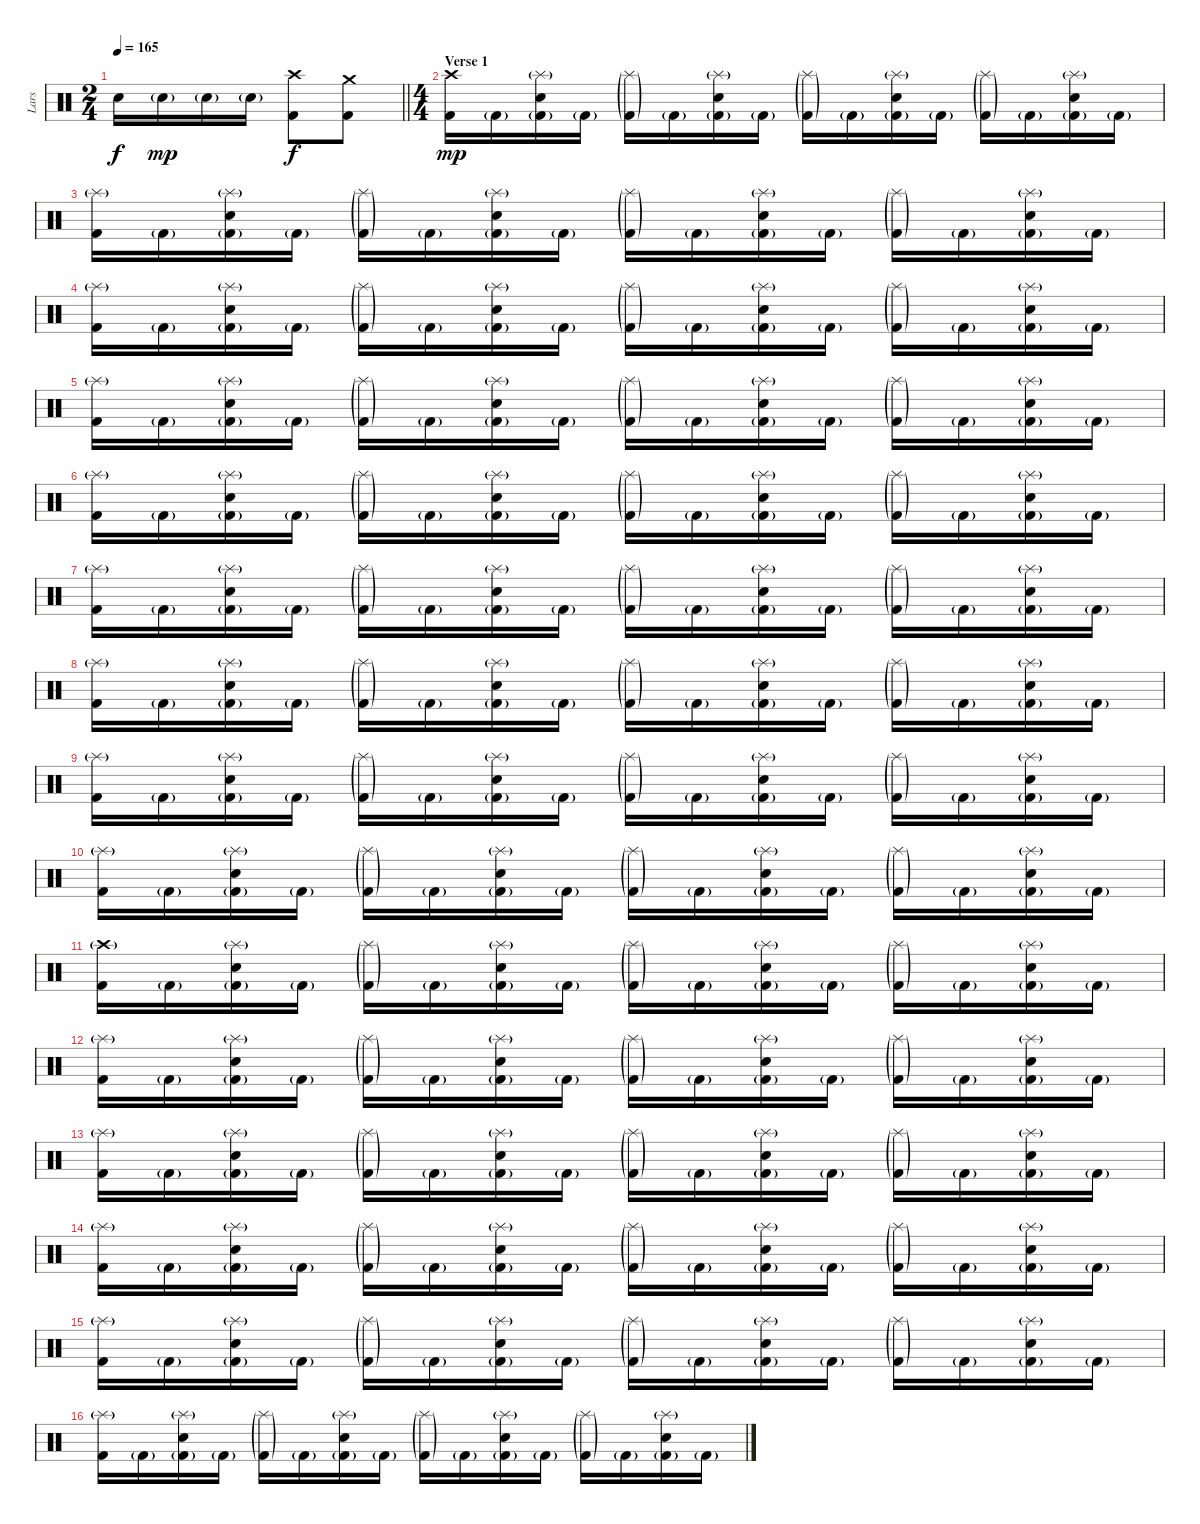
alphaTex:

\track ("Lars" "Lars") {instrument percussion}
\staff {score}
\articulation defaults
\ts (2 4)
\tempo 165
\clef neutral
\barLineRight lightlight
\ks c "Snare (hit) 2".16{dy f} "Snare (hit) 2"{g}.16{dy mp} "Snare (hit) 2"{g}.16 "Snare (hit) 2"{g}.16
("Crash high (hit)" "Kick (hit) 2").8{dy f} ("Crash medium (hit)" "Kick (hit) 2").8 |
\ts (4 4)
\section ("" "Verse 1")
("Crash high (hit)" "Kick (hit) 2").16{dy mp} "Kick (hit) 2"{g}.16 ("Splash (hit)"{g} "Snare (hit) 2" "Kick (hit) 2"{g}).16 "Kick (hit) 2"{g}.16 ("Splash (hit)"{g} "Kick (hit) 2"{g}).16 "Kick (hit) 2"{g}.16 ("Splash (hit)"{g} "Snare (hit) 2" "Kick (hit) 2"{g}).16 "Kick (hit) 2"{g}.16 ("Splash (hit)"{g} "Kick (hit) 2"{g}).16 "Kick (hit) 2"{g}.16 ("Splash (hit)"{g} "Snare (hit) 2" "Kick (hit) 2"{g}).16 "Kick (hit) 2"{g}.16 ("Splash (hit)"{g} "Kick (hit) 2"{g}).16 "Kick (hit) 2"{g}.16 ("Splash (hit)"{g} "Snare (hit) 2" "Kick (hit) 2"{g}).16 "Kick (hit) 2"{g}.16 |
("Splash (hit)"{g} "Kick (hit) 2").16 "Kick (hit) 2"{g}.16 ("Splash (hit)"{g} "Snare (hit) 2" "Kick (hit) 2"{g}).16 "Kick (hit) 2"{g}.16 ("Splash (hit)"{g} "Kick (hit) 2"{g}).16 "Kick (hit) 2"{g}.16 ("Splash (hit)"{g} "Snare (hit) 2" "Kick (hit) 2"{g}).16 "Kick (hit) 2"{g}.16 ("Splash (hit)"{g} "Kick (hit) 2"{g}).16 "Kick (hit) 2"{g}.16 ("Splash (hit)"{g} "Snare (hit) 2" "Kick (hit) 2"{g}).16 "Kick (hit) 2"{g}.16 ("Splash (hit)"{g} "Kick (hit) 2"{g}).16 "Kick (hit) 2"{g}.16 ("Splash (hit)"{g} "Snare (hit) 2" "Kick (hit) 2"{g}).16 "Kick (hit) 2"{g}.16 |
("Splash (hit)"{g} "Kick (hit) 2").16 "Kick (hit) 2"{g}.16 ("Splash (hit)"{g} "Snare (hit) 2" "Kick (hit) 2"{g}).16 "Kick (hit) 2"{g}.16 ("Splash (hit)"{g} "Kick (hit) 2"{g}).16 "Kick (hit) 2"{g}.16 ("Splash (hit)"{g} "Snare (hit) 2" "Kick (hit) 2"{g}).16 "Kick (hit) 2"{g}.16 ("Splash (hit)"{g} "Kick (hit) 2"{g}).16 "Kick (hit) 2"{g}.16 ("Splash (hit)"{g} "Snare (hit) 2" "Kick (hit) 2"{g}).16 "Kick (hit) 2"{g}.16 ("Splash (hit)"{g} "Kick (hit) 2"{g}).16 "Kick (hit) 2"{g}.16 ("Splash (hit)"{g} "Snare (hit) 2" "Kick (hit) 2"{g}).16 "Kick (hit) 2"{g}.16 |
("Splash (hit)"{g} "Kick (hit) 2").16 "Kick (hit) 2"{g}.16 ("Splash (hit)"{g} "Snare (hit) 2" "Kick (hit) 2"{g}).16 "Kick (hit) 2"{g}.16 ("Splash (hit)"{g} "Kick (hit) 2"{g}).16 "Kick (hit) 2"{g}.16 ("Splash (hit)"{g} "Snare (hit) 2" "Kick (hit) 2"{g}).16 "Kick (hit) 2"{g}.16 ("Splash (hit)"{g} "Kick (hit) 2"{g}).16 "Kick (hit) 2"{g}.16 ("Splash (hit)"{g} "Snare (hit) 2" "Kick (hit) 2"{g}).16 "Kick (hit) 2"{g}.16 ("Splash (hit)"{g} "Kick (hit) 2"{g}).16 "Kick (hit) 2"{g}.16 ("Splash (hit)"{g} "Snare (hit) 2" "Kick (hit) 2"{g}).16 "Kick (hit) 2"{g}.16 |
("Splash (hit)"{g} "Kick (hit) 2").16 "Kick (hit) 2"{g}.16 ("Splash (hit)"{g} "Snare (hit) 2" "Kick (hit) 2"{g}).16 "Kick (hit) 2"{g}.16 ("Splash (hit)"{g} "Kick (hit) 2"{g}).16 "Kick (hit) 2"{g}.16 ("Splash (hit)"{g} "Snare (hit) 2" "Kick (hit) 2"{g}).16 "Kick (hit) 2"{g}.16 ("Splash (hit)"{g} "Kick (hit) 2"{g}).16 "Kick (hit) 2"{g}.16 ("Splash (hit)"{g} "Snare (hit) 2" "Kick (hit) 2"{g}).16 "Kick (hit) 2"{g}.16 ("Splash (hit)"{g} "Kick (hit) 2"{g}).16 "Kick (hit) 2"{g}.16 ("Splash (hit)"{g} "Snare (hit) 2" "Kick (hit) 2"{g}).16 "Kick (hit) 2"{g}.16 |
("Splash (hit)"{g} "Kick (hit) 2").16 "Kick (hit) 2"{g}.16 ("Splash (hit)"{g} "Snare (hit) 2" "Kick (hit) 2"{g}).16 "Kick (hit) 2"{g}.16 ("Splash (hit)"{g} "Kick (hit) 2"{g}).16 "Kick (hit) 2"{g}.16 ("Splash (hit)"{g} "Snare (hit) 2" "Kick (hit) 2"{g}).16 "Kick (hit) 2"{g}.16 ("Splash (hit)"{g} "Kick (hit) 2"{g}).16 "Kick (hit) 2"{g}.16 ("Splash (hit)"{g} "Snare (hit) 2" "Kick (hit) 2"{g}).16 "Kick (hit) 2"{g}.16 ("Splash (hit)"{g} "Kick (hit) 2"{g}).16 "Kick (hit) 2"{g}.16 ("Splash (hit)"{g} "Snare (hit) 2" "Kick (hit) 2"{g}).16 "Kick (hit) 2"{g}.16 |
("Splash (hit)"{g} "Kick (hit) 2").16 "Kick (hit) 2"{g}.16 ("Splash (hit)"{g} "Snare (hit) 2" "Kick (hit) 2"{g}).16 "Kick (hit) 2"{g}.16 ("Splash (hit)"{g} "Kick (hit) 2"{g}).16 "Kick (hit) 2"{g}.16 ("Splash (hit)"{g} "Snare (hit) 2" "Kick (hit) 2"{g}).16 "Kick (hit) 2"{g}.16 ("Splash (hit)"{g} "Kick (hit) 2"{g}).16 "Kick (hit) 2"{g}.16 ("Splash (hit)"{g} "Snare (hit) 2" "Kick (hit) 2"{g}).16 "Kick (hit) 2"{g}.16 ("Splash (hit)"{g} "Kick (hit) 2"{g}).16 "Kick (hit) 2"{g}.16 ("Splash (hit)"{g} "Snare (hit) 2" "Kick (hit) 2"{g}).16 "Kick (hit) 2"{g}.16 |
("Splash (hit)"{g} "Kick (hit) 2").16 "Kick (hit) 2"{g}.16 ("Splash (hit)"{g} "Snare (hit) 2" "Kick (hit) 2"{g}).16 "Kick (hit) 2"{g}.16 ("Splash (hit)"{g} "Kick (hit) 2"{g}).16 "Kick (hit) 2"{g}.16 ("Splash (hit)"{g} "Snare (hit) 2" "Kick (hit) 2"{g}).16 "Kick (hit) 2"{g}.16 ("Splash (hit)"{g} "Kick (hit) 2"{g}).16 "Kick (hit) 2"{g}.16 ("Splash (hit)"{g} "Snare (hit) 2" "Kick (hit) 2"{g}).16 "Kick (hit) 2"{g}.16 ("Splash (hit)"{g} "Kick (hit) 2"{g}).16 "Kick (hit) 2"{g}.16 ("Splash (hit)"{g} "Snare (hit) 2" "Kick (hit) 2"{g}).16 "Kick (hit) 2"{g}.16 |
("Splash (hit)"{g} "Kick (hit) 2").16 "Kick (hit) 2"{g}.16 ("Splash (hit)"{g} "Snare (hit) 2" "Kick (hit) 2"{g}).16 "Kick (hit) 2"{g}.16 ("Splash (hit)"{g} "Kick (hit) 2"{g}).16 "Kick (hit) 2"{g}.16 ("Splash (hit)"{g} "Snare (hit) 2" "Kick (hit) 2"{g}).16 "Kick (hit) 2"{g}.16 ("Splash (hit)"{g} "Kick (hit) 2"{g}).16 "Kick (hit) 2"{g}.16 ("Splash (hit)"{g} "Snare (hit) 2" "Kick (hit) 2"{g}).16 "Kick (hit) 2"{g}.16 ("Splash (hit)"{g} "Kick (hit) 2"{g}).16 "Kick (hit) 2"{g}.16 ("Splash (hit)"{g} "Snare (hit) 2" "Kick (hit) 2"{g}).16 "Kick (hit) 2"{g}.16 |
("Crash high (hit)"{g} "Kick (hit) 2").16 "Kick (hit) 2"{g}.16 ("Splash (hit)"{g} "Snare (hit) 2" "Kick (hit) 2"{g}).16 "Kick (hit) 2"{g}.16 ("Splash (hit)"{g} "Kick (hit) 2"{g}).16 "Kick (hit) 2"{g}.16 ("Splash (hit)"{g} "Snare (hit) 2" "Kick (hit) 2"{g}).16 "Kick (hit) 2"{g}.16 ("Splash (hit)"{g} "Kick (hit) 2"{g}).16 "Kick (hit) 2"{g}.16 ("Splash (hit)"{g} "Snare (hit) 2" "Kick (hit) 2"{g}).16 "Kick (hit) 2"{g}.16 ("Splash (hit)"{g} "Kick (hit) 2"{g}).16 "Kick (hit) 2"{g}.16 ("Splash (hit)"{g} "Snare (hit) 2" "Kick (hit) 2"{g}).16 "Kick (hit) 2"{g}.16 |
("Splash (hit)"{g} "Kick (hit) 2").16 "Kick (hit) 2"{g}.16 ("Splash (hit)"{g} "Snare (hit) 2" "Kick (hit) 2"{g}).16 "Kick (hit) 2"{g}.16 ("Splash (hit)"{g} "Kick (hit) 2"{g}).16 "Kick (hit) 2"{g}.16 ("Splash (hit)"{g} "Snare (hit) 2" "Kick (hit) 2"{g}).16 "Kick (hit) 2"{g}.16 ("Splash (hit)"{g} "Kick (hit) 2"{g}).16 "Kick (hit) 2"{g}.16 ("Splash (hit)"{g} "Snare (hit) 2" "Kick (hit) 2"{g}).16 "Kick (hit) 2"{g}.16 ("Splash (hit)"{g} "Kick (hit) 2"{g}).16 "Kick (hit) 2"{g}.16 ("Splash (hit)"{g} "Snare (hit) 2" "Kick (hit) 2"{g}).16 "Kick (hit) 2"{g}.16 |
("Splash (hit)"{g} "Kick (hit) 2").16 "Kick (hit) 2"{g}.16 ("Splash (hit)"{g} "Snare (hit) 2" "Kick (hit) 2"{g}).16 "Kick (hit) 2"{g}.16 ("Splash (hit)"{g} "Kick (hit) 2"{g}).16 "Kick (hit) 2"{g}.16 ("Splash (hit)"{g} "Snare (hit) 2" "Kick (hit) 2"{g}).16 "Kick (hit) 2"{g}.16 ("Splash (hit)"{g} "Kick (hit) 2"{g}).16 "Kick (hit) 2"{g}.16 ("Splash (hit)"{g} "Snare (hit) 2" "Kick (hit) 2"{g}).16 "Kick (hit) 2"{g}.16 ("Splash (hit)"{g} "Kick (hit) 2"{g}).16 "Kick (hit) 2"{g}.16 ("Splash (hit)"{g} "Snare (hit) 2" "Kick (hit) 2"{g}).16 "Kick (hit) 2"{g}.16 |
("Splash (hit)"{g} "Kick (hit) 2").16 "Kick (hit) 2"{g}.16 ("Splash (hit)"{g} "Snare (hit) 2" "Kick (hit) 2"{g}).16 "Kick (hit) 2"{g}.16 ("Splash (hit)"{g} "Kick (hit) 2"{g}).16 "Kick (hit) 2"{g}.16 ("Splash (hit)"{g} "Snare (hit) 2" "Kick (hit) 2"{g}).16 "Kick (hit) 2"{g}.16 ("Splash (hit)"{g} "Kick (hit) 2"{g}).16 "Kick (hit) 2"{g}.16 ("Splash (hit)"{g} "Snare (hit) 2" "Kick (hit) 2"{g}).16 "Kick (hit) 2"{g}.16 ("Splash (hit)"{g} "Kick (hit) 2"{g}).16 "Kick (hit) 2"{g}.16 ("Splash (hit)"{g} "Snare (hit) 2" "Kick (hit) 2"{g}).16 "Kick (hit) 2"{g}.16 |
("Splash (hit)"{g} "Kick (hit) 2").16 "Kick (hit) 2"{g}.16 ("Splash (hit)"{g} "Snare (hit) 2" "Kick (hit) 2"{g}).16 "Kick (hit) 2"{g}.16 ("Splash (hit)"{g} "Kick (hit) 2"{g}).16 "Kick (hit) 2"{g}.16 ("Splash (hit)"{g} "Snare (hit) 2" "Kick (hit) 2"{g}).16 "Kick (hit) 2"{g}.16 ("Splash (hit)"{g} "Kick (hit) 2"{g}).16 "Kick (hit) 2"{g}.16 ("Splash (hit)"{g} "Snare (hit) 2" "Kick (hit) 2"{g}).16 "Kick (hit) 2"{g}.16 ("Splash (hit)"{g} "Kick (hit) 2"{g}).16 "Kick (hit) 2"{g}.16 ("Splash (hit)"{g} "Snare (hit) 2" "Kick (hit) 2"{g}).16 "Kick (hit) 2"{g}.16 |
("Splash (hit)"{g} "Kick (hit) 2").16 "Kick (hit) 2"{g}.16 ("Splash (hit)"{g} "Snare (hit) 2" "Kick (hit) 2"{g}).16 "Kick (hit) 2"{g}.16 ("Splash (hit)"{g} "Kick (hit) 2"{g}).16 "Kick (hit) 2"{g}.16 ("Splash (hit)"{g} "Snare (hit) 2" "Kick (hit) 2"{g}).16 "Kick (hit) 2"{g}.16 ("Splash (hit)"{g} "Kick (hit) 2"{g}).16 "Kick (hit) 2"{g}.16 ("Splash (hit)"{g} "Snare (hit) 2" "Kick (hit) 2"{g}).16 "Kick (hit) 2"{g}.16 ("Splash (hit)"{g} "Kick (hit) 2"{g}).16 "Kick (hit) 2"{g}.16 ("Splash (hit)"{g} "Snare (hit) 2" "Kick (hit) 2"{g}).16 "Kick (hit) 2"{g}.16
